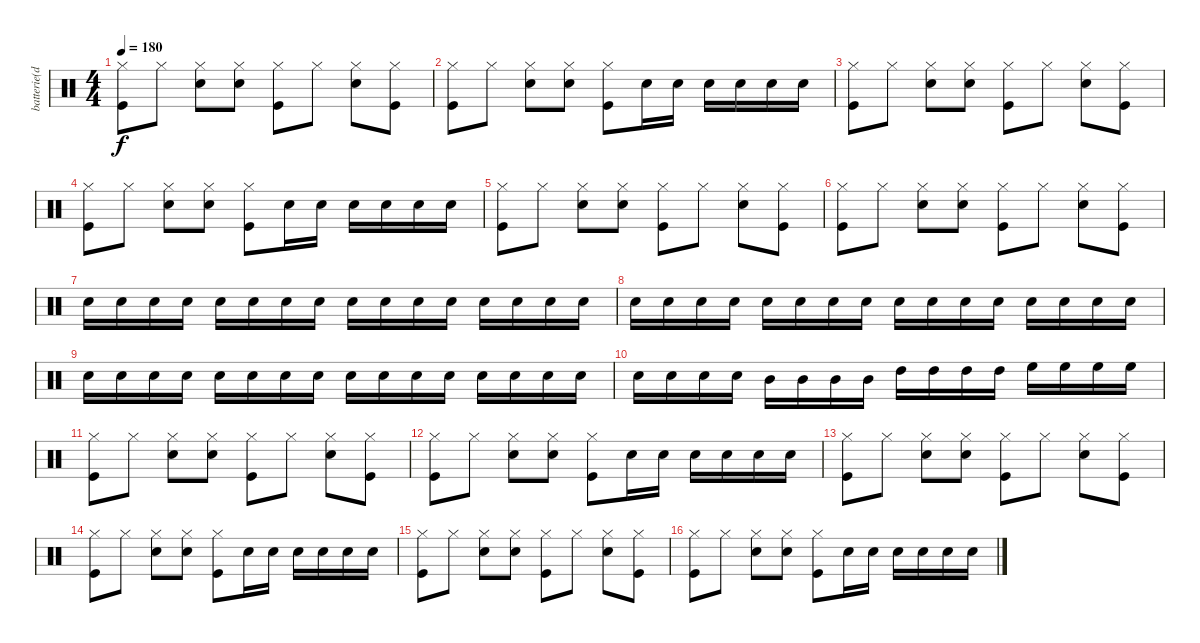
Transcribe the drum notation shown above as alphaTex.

\track ("batterie(dave)" "batterie(d") {instrument percussion}
\staff {score}
\articulation defaults
\ts (4 4)
\tempo 180
\clef neutral
\ks c
("Hi-Hat (closed)" "Kick (hit)").8{dy f} "Hi-Hat (closed)".8 ("Hi-Hat (closed)" "Snare (hit) 2").8 ("Hi-Hat (closed)" "Snare (hit) 2").8 ("Hi-Hat (closed)" "Kick (hit)").8 "Hi-Hat (closed)".8 ("Hi-Hat (closed)" "Snare (hit) 2").8 ("Hi-Hat (closed)" "Kick (hit)").8 |
("Hi-Hat (closed)" "Kick (hit)").8 "Hi-Hat (closed)".8 ("Hi-Hat (closed)" "Snare (hit) 2").8 ("Hi-Hat (closed)" "Snare (hit) 2").8 ("Hi-Hat (closed)" "Kick (hit)").8 "Snare (hit) 2".16 "Snare (hit) 2".16 "Snare (hit) 2".16 "Snare (hit) 2".16 "Snare (hit) 2".16 "Snare (hit) 2".16 |
("Hi-Hat (closed)" "Kick (hit)").8 "Hi-Hat (closed)".8 ("Hi-Hat (closed)" "Snare (hit) 2").8 ("Hi-Hat (closed)" "Snare (hit) 2").8 ("Hi-Hat (closed)" "Kick (hit)").8 "Hi-Hat (closed)".8 ("Hi-Hat (closed)" "Snare (hit) 2").8 ("Hi-Hat (closed)" "Kick (hit)").8 |
("Hi-Hat (closed)" "Kick (hit)").8 "Hi-Hat (closed)".8 ("Hi-Hat (closed)" "Snare (hit) 2").8 ("Hi-Hat (closed)" "Snare (hit) 2").8 ("Hi-Hat (closed)" "Kick (hit)").8 "Snare (hit) 2".16 "Snare (hit) 2".16 "Snare (hit) 2".16 "Snare (hit) 2".16 "Snare (hit) 2".16 "Snare (hit) 2".16 |
("Hi-Hat (closed)" "Kick (hit)").8 "Hi-Hat (closed)".8 ("Hi-Hat (closed)" "Snare (hit) 2").8 ("Hi-Hat (closed)" "Snare (hit) 2").8 ("Hi-Hat (closed)" "Kick (hit)").8 "Hi-Hat (closed)".8 ("Hi-Hat (closed)" "Snare (hit) 2").8 ("Hi-Hat (closed)" "Kick (hit)").8 |
("Hi-Hat (closed)" "Kick (hit)").8 "Hi-Hat (closed)".8 ("Hi-Hat (closed)" "Snare (hit) 2").8 ("Hi-Hat (closed)" "Snare (hit) 2").8 ("Hi-Hat (closed)" "Kick (hit)").8 "Hi-Hat (closed)".8 ("Hi-Hat (closed)" "Snare (hit) 2").8 ("Hi-Hat (closed)" "Kick (hit)").8 |
"Snare (hit) 2".16{volume 8} "Snare (hit) 2".16 "Snare (hit) 2".16 "Snare (hit) 2".16 "Snare (hit) 2".16 "Snare (hit) 2".16 "Snare (hit) 2".16 "Snare (hit) 2".16 "Snare (hit) 2".16 "Snare (hit) 2".16 "Snare (hit) 2".16 "Snare (hit) 2".16 "Snare (hit) 2".16 "Snare (hit) 2".16 "Snare (hit) 2".16 "Snare (hit) 2".16 |
"Snare (hit) 2".16 "Snare (hit) 2".16 "Snare (hit) 2".16 "Snare (hit) 2".16 "Snare (hit) 2".16 "Snare (hit) 2".16 "Snare (hit) 2".16 "Snare (hit) 2".16 "Snare (hit) 2".16 "Snare (hit) 2".16 "Snare (hit) 2".16 "Snare (hit) 2".16 "Snare (hit) 2".16 "Snare (hit) 2".16 "Snare (hit) 2".16 "Snare (hit) 2".16 |
"Snare (hit) 2".16 "Snare (hit) 2".16 "Snare (hit) 2".16 "Snare (hit) 2".16 "Snare (hit) 2".16 "Snare (hit) 2".16 "Snare (hit) 2".16 "Snare (hit) 2".16 "Snare (hit) 2".16 "Snare (hit) 2".16 "Snare (hit) 2".16 "Snare (hit) 2".16 "Snare (hit) 2".16 "Snare (hit) 2".16 "Snare (hit) 2".16 "Snare (hit) 2".16 |
"Snare (hit) 2".16 "Snare (hit) 2".16 "Snare (hit) 2".16 "Snare (hit) 2".16 "Mid Tom (hit)".16 "Mid Tom (hit)".16 "Mid Tom (hit)".16 "Mid Tom (hit)".16 "High Tom (hit)".16 "High Tom (hit)".16 "High Tom (hit)".16 "High Tom (hit)".16 "High Floor Tom (hit)".16 "High Floor Tom (hit)".16 "High Floor Tom (hit)".16 "High Floor Tom (hit)".16 |
("Hi-Hat (closed)" "Kick (hit)").8{volume 12} "Hi-Hat (closed)".8 ("Hi-Hat (closed)" "Snare (hit) 2").8 ("Hi-Hat (closed)" "Snare (hit) 2").8 ("Hi-Hat (closed)" "Kick (hit)").8 "Hi-Hat (closed)".8 ("Hi-Hat (closed)" "Snare (hit) 2").8 ("Hi-Hat (closed)" "Kick (hit)").8 |
("Hi-Hat (closed)" "Kick (hit)").8 "Hi-Hat (closed)".8 ("Hi-Hat (closed)" "Snare (hit) 2").8 ("Hi-Hat (closed)" "Snare (hit) 2").8 ("Hi-Hat (closed)" "Kick (hit)").8 "Snare (hit) 2".16 "Snare (hit) 2".16 "Snare (hit) 2".16 "Snare (hit) 2".16 "Snare (hit) 2".16 "Snare (hit) 2".16 |
("Hi-Hat (closed)" "Kick (hit)").8 "Hi-Hat (closed)".8 ("Hi-Hat (closed)" "Snare (hit) 2").8 ("Hi-Hat (closed)" "Snare (hit) 2").8 ("Hi-Hat (closed)" "Kick (hit)").8 "Hi-Hat (closed)".8 ("Hi-Hat (closed)" "Snare (hit) 2").8 ("Hi-Hat (closed)" "Kick (hit)").8 |
("Hi-Hat (closed)" "Kick (hit)").8 "Hi-Hat (closed)".8 ("Hi-Hat (closed)" "Snare (hit) 2").8 ("Hi-Hat (closed)" "Snare (hit) 2").8 ("Hi-Hat (closed)" "Kick (hit)").8 "Snare (hit) 2".16 "Snare (hit) 2".16 "Snare (hit) 2".16 "Snare (hit) 2".16 "Snare (hit) 2".16 "Snare (hit) 2".16 |
("Hi-Hat (closed)" "Kick (hit)").8 "Hi-Hat (closed)".8 ("Hi-Hat (closed)" "Snare (hit) 2").8 ("Hi-Hat (closed)" "Snare (hit) 2").8 ("Hi-Hat (closed)" "Kick (hit)").8 "Hi-Hat (closed)".8 ("Hi-Hat (closed)" "Snare (hit) 2").8 ("Hi-Hat (closed)" "Kick (hit)").8 |
("Hi-Hat (closed)" "Kick (hit)").8 "Hi-Hat (closed)".8 ("Hi-Hat (closed)" "Snare (hit) 2").8 ("Hi-Hat (closed)" "Snare (hit) 2").8 ("Hi-Hat (closed)" "Kick (hit)").8 "Snare (hit) 2".16 "Snare (hit) 2".16 "Snare (hit) 2".16 "Snare (hit) 2".16 "Snare (hit) 2".16 "Snare (hit) 2".16
